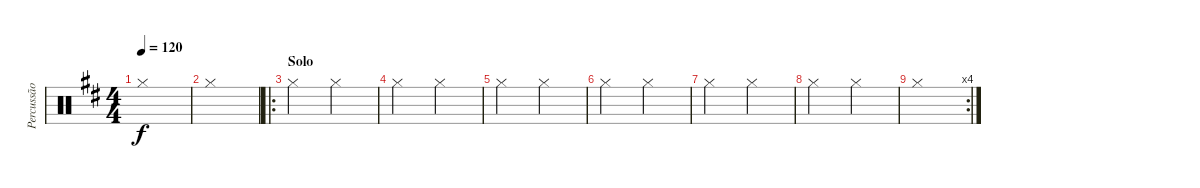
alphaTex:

\track ("Percussão" "Percussão") {instrument percussion}
\staff {score}
\articulation defaults
\ts (4 4)
\tempo 120
\clef neutral
\ks d "Hi-Hat (closed)".1{dy f}
|
"Hi-Hat (closed)".1 |
\ro
\section ("" "Solo")
"Hi-Hat (closed)".2 "Hi-Hat (closed)".2 |
"Hi-Hat (closed)".2 "Hi-Hat (closed)".2 |
"Hi-Hat (closed)".2 "Hi-Hat (closed)".2 |
"Hi-Hat (closed)".2 "Hi-Hat (closed)".2 |
"Hi-Hat (closed)".2 "Hi-Hat (closed)".2 |
"Hi-Hat (closed)".2 "Hi-Hat (closed)".2 |
\rc 4 "Hi-Hat (closed)".1
